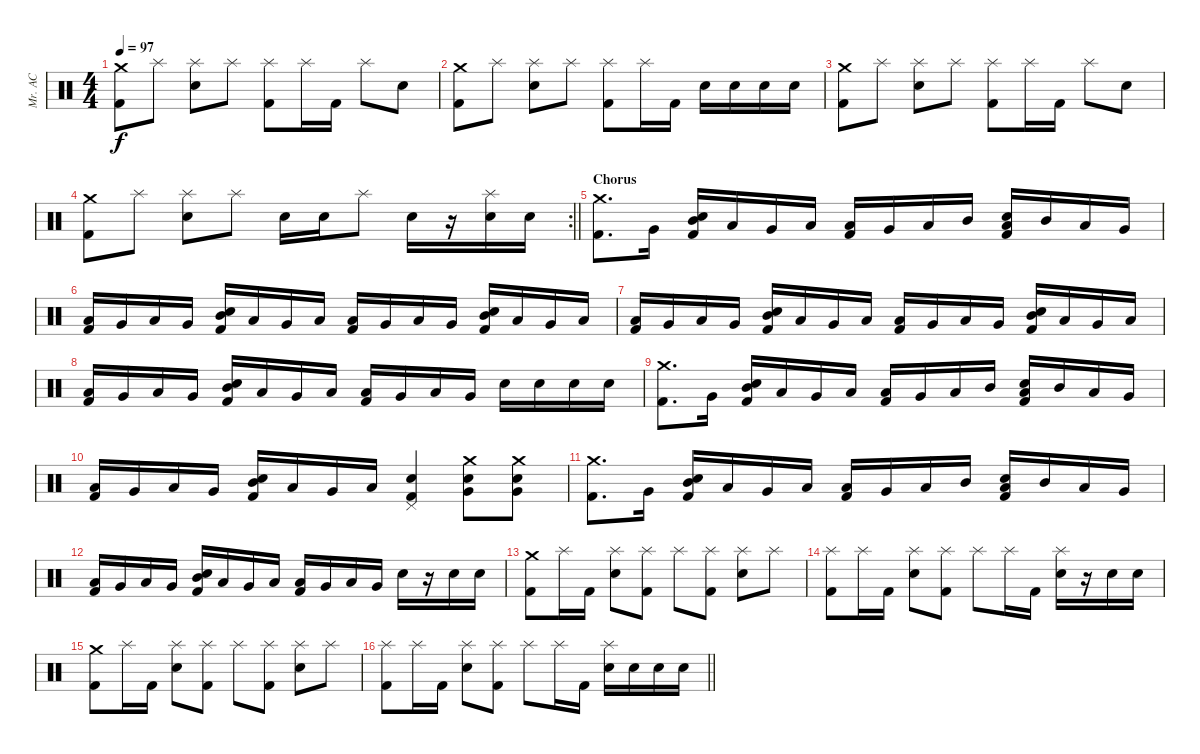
\track ("Mr. AC" "Mr. AC") {instrument percussion}
\staff {score}
\articulation defaults
\ts (4 4)
\tempo 97
\clef neutral
\ks c
("Crash medium (hit)" "Kick (hit) 2").8{dy f} "Splash (hit)".8 ("Splash (hit)" "Snare (hit) 2").8 "Splash (hit)".8 ("Splash (hit)" "Kick (hit) 2").8 "Splash (hit)".16 "Kick (hit) 2".16 "Splash (hit)".8 "Snare (hit) 2".8 |
("Crash medium (hit)" "Kick (hit) 2").8 "Splash (hit)".8 ("Splash (hit)" "Snare (hit) 2").8 "Splash (hit)".8 ("Splash (hit)" "Kick (hit) 2").8 "Splash (hit)".16 "Kick (hit) 2".16 "Snare (hit) 2".16 "Snare (hit) 2".16 "Snare (hit) 2".16 "Snare (hit) 2".16 |
("Crash medium (hit)" "Kick (hit) 2").8 "Splash (hit)".8 ("Splash (hit)" "Snare (hit) 2").8 "Splash (hit)".8 ("Splash (hit)" "Kick (hit) 2").8 "Splash (hit)".16 "Kick (hit) 2".16 "Splash (hit)".8 "Snare (hit) 2".8 |
\rc 2
\barLineRight lightlight
("Crash medium (hit)" "Kick (hit) 2").8 "Splash (hit)".8 ("Splash (hit)" "Snare (hit) 2").8 "Splash (hit)".8 "Snare (hit) 2".16 "Snare (hit) 2".16 "Splash (hit)".8 "Snare (hit) 2".16 r.16 ("Splash (hit)" "Snare (hit) 2").16 "Snare (hit) 2".16 |
\section ("" "Chorus")
("Crash medium (hit)" "Kick (hit) 2").8{d} "Very Low Tom (hit)".16 ("Snare (hit) 2" "Mid Tom (hit)" "Kick (hit) 2").16 "Low Floor Tom (hit)".16 "Very Low Tom (hit)".16 "Low Tom (hit)".16 ("Low Floor Tom (hit)" "Kick (hit) 2").16 "Very Low Tom (hit)".16 "Low Tom (hit)".16 "Mid Tom (hit)".16 ("Snare (hit) 2" "Low Tom (hit)" "Kick (hit) 2").16 "Mid Tom (hit)".16 "Low Tom (hit)".16 "Very Low Tom (hit)".16 |
("Low Floor Tom (hit)" "Kick (hit) 2").16 "Very Low Tom (hit)".16 "Low Tom (hit)".16 "Very Low Tom (hit)".16 ("Snare (hit) 2" "Mid Tom (hit)" "Kick (hit) 2").16 "Low Tom (hit)".16 "Very Low Tom (hit)".16 "Low Tom (hit)".16 ("Low Floor Tom (hit)" "Kick (hit) 2").16 "Very Low Tom (hit)".16 "Low Tom (hit)".16 "Very Low Tom (hit)".16 ("Snare (hit) 2" "Mid Tom (hit)" "Kick (hit) 2").16 "Low Tom (hit)".16 "Very Low Tom (hit)".16 "Low Tom (hit)".16 |
("Low Floor Tom (hit)" "Kick (hit) 2").16 "Very Low Tom (hit)".16 "Low Tom (hit)".16 "Very Low Tom (hit)".16 ("Snare (hit) 2" "Mid Tom (hit)" "Kick (hit) 2").16 "Low Tom (hit)".16 "Very Low Tom (hit)".16 "Low Tom (hit)".16 ("Low Floor Tom (hit)" "Kick (hit) 2").16 "Very Low Tom (hit)".16 "Low Tom (hit)".16 "Very Low Tom (hit)".16 ("Snare (hit) 2" "Mid Tom (hit)" "Kick (hit) 2").16 "Low Tom (hit)".16 "Very Low Tom (hit)".16 "Low Tom (hit)".16 |
("Low Floor Tom (hit)" "Kick (hit) 2").16 "Very Low Tom (hit)".16 "Low Tom (hit)".16 "Very Low Tom (hit)".16 ("Snare (hit) 2" "Mid Tom (hit)" "Kick (hit) 2").16 "Low Tom (hit)".16 "Very Low Tom (hit)".16 "Low Tom (hit)".16 ("Low Floor Tom (hit)" "Kick (hit) 2").16 "Very Low Tom (hit)".16 "Low Tom (hit)".16 "Very Low Tom (hit)".16 "Snare (hit) 2".16 "Snare (hit) 2".16 "Snare (hit) 2".16 "Snare (hit) 2".16 |
("Crash medium (hit)" "Kick (hit) 2").8{d} "Very Low Tom (hit)".16 ("Snare (hit) 2" "Mid Tom (hit)" "Kick (hit) 2").16 "Low Floor Tom (hit)".16 "Very Low Tom (hit)".16 "Low Tom (hit)".16 ("Low Floor Tom (hit)" "Kick (hit) 2").16 "Very Low Tom (hit)".16 "Low Tom (hit)".16 "Mid Tom (hit)".16 ("Snare (hit) 2" "Low Tom (hit)" "Kick (hit) 2").16 "Mid Tom (hit)".16 "Low Tom (hit)".16 "Very Low Tom (hit)".16 |
("Low Floor Tom (hit)" "Kick (hit) 2").16 "Very Low Tom (hit)".16 "Low Tom (hit)".16 "Very Low Tom (hit)".16 ("Snare (hit) 2" "Mid Tom (hit)" "Kick (hit) 2").16 "Low Tom (hit)".16 "Very Low Tom (hit)".16 "Low Tom (hit)".16 ("Pedal Hi-Hat (hit)" "Snare (hit) 2" "Kick (hit) 2").4 ("Crash medium (hit)" "Very Low Tom (hit)" "Snare (hit) 2").8 ("Crash medium (hit)" "Very Low Tom (hit)" "Snare (hit) 2").8 |
("Crash medium (hit)" "Kick (hit) 2").8{d} "Very Low Tom (hit)".16 ("Snare (hit) 2" "Mid Tom (hit)" "Kick (hit) 2").16 "Low Floor Tom (hit)".16 "Very Low Tom (hit)".16 "Low Tom (hit)".16 ("Low Floor Tom (hit)" "Kick (hit) 2").16 "Very Low Tom (hit)".16 "Low Tom (hit)".16 "Mid Tom (hit)".16 ("Snare (hit) 2" "Low Tom (hit)" "Kick (hit) 2").16 "Mid Tom (hit)".16 "Low Tom (hit)".16 "Very Low Tom (hit)".16 |
("Low Floor Tom (hit)" "Kick (hit) 2").16 "Very Low Tom (hit)".16 "Low Tom (hit)".16 "Very Low Tom (hit)".16 ("Snare (hit) 2" "Mid Tom (hit)" "Kick (hit) 2").16 "Low Tom (hit)".16 "Very Low Tom (hit)".16 "Low Tom (hit)".16 ("Low Floor Tom (hit)" "Kick (hit) 2").16 "Very Low Tom (hit)".16 "Low Tom (hit)".16 "Very Low Tom (hit)".16 "Snare (hit) 2".16 r.16 "Snare (hit) 2".16 "Snare (hit) 2".16 |
("Crash medium (hit)" "Kick (hit) 2").8 "Splash (hit)".16 "Kick (hit) 2".16 ("Splash (hit)" "Snare (hit) 2").8 ("Splash (hit)" "Kick (hit) 2").8 "Splash (hit)".8 ("Splash (hit)" "Kick (hit) 2").8 ("Splash (hit)" "Snare (hit) 2").8 "Splash (hit)".8 |
("Splash (hit)" "Kick (hit) 2").8 "Splash (hit)".16 "Kick (hit) 2".16 ("Splash (hit)" "Snare (hit) 2").8 ("Splash (hit)" "Kick (hit) 2").8 "Splash (hit)".8 "Splash (hit)".16 "Kick (hit) 2".16 ("Splash (hit)" "Snare (hit) 2").16 r.16 "Snare (hit) 2".16 "Snare (hit) 2".16 |
("Crash medium (hit)" "Kick (hit) 2").8 "Splash (hit)".16 "Kick (hit) 2".16 ("Splash (hit)" "Snare (hit) 2").8 ("Splash (hit)" "Kick (hit) 2").8 "Splash (hit)".8 ("Splash (hit)" "Kick (hit) 2").8 ("Splash (hit)" "Snare (hit) 2").8 "Splash (hit)".8 |
\barLineRight lightlight
("Splash (hit)" "Kick (hit) 2").8 "Splash (hit)".16 "Kick (hit) 2".16 ("Splash (hit)" "Snare (hit) 2").8 ("Splash (hit)" "Kick (hit) 2").8 "Splash (hit)".8 "Splash (hit)".16 "Kick (hit) 2".16 ("Splash (hit)" "Snare (hit) 2").16 "Snare (hit) 2".16 "Snare (hit) 2".16 "Snare (hit) 2".16
